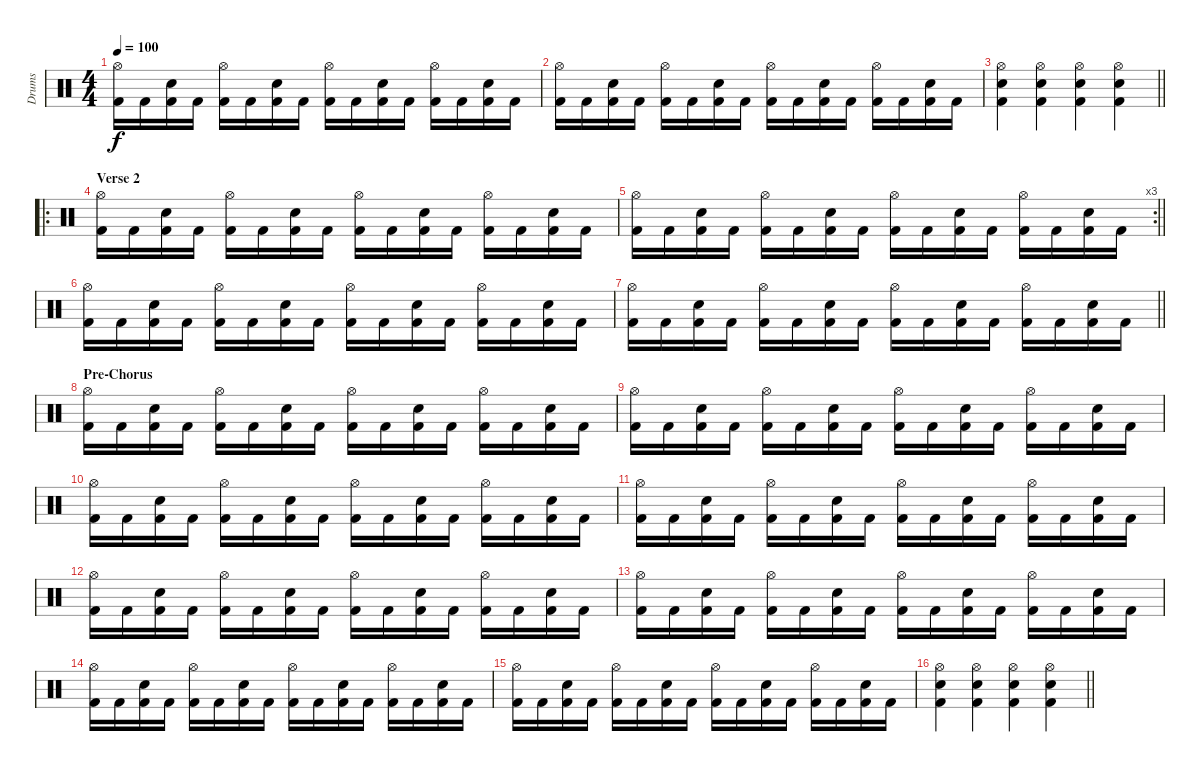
\track ("Drums" "Drums") {instrument percussion}
\staff {score}
\articulation defaults
\ts (4 4)
\tempo 100
\clef neutral
\ks c
("Hi-Hat (open)" "Kick (hit) 2").16{dy f} "Kick (hit) 2".16 ("Snare (hit) 2" "Kick (hit) 2").16 "Kick (hit) 2".16 ("Hi-Hat (open)" "Kick (hit) 2").16 "Kick (hit) 2".16 ("Snare (hit) 2" "Kick (hit) 2").16 "Kick (hit) 2".16 ("Hi-Hat (open)" "Kick (hit) 2").16 "Kick (hit) 2".16 ("Snare (hit) 2" "Kick (hit) 2").16 "Kick (hit) 2".16 ("Hi-Hat (open)" "Kick (hit) 2").16 "Kick (hit) 2".16 ("Snare (hit) 2" "Kick (hit) 2").16 "Kick (hit) 2".16 |
("Hi-Hat (open)" "Kick (hit) 2").16 "Kick (hit) 2".16 ("Snare (hit) 2" "Kick (hit) 2").16 "Kick (hit) 2".16 ("Hi-Hat (open)" "Kick (hit) 2").16 "Kick (hit) 2".16 ("Snare (hit) 2" "Kick (hit) 2").16 "Kick (hit) 2".16 ("Hi-Hat (open)" "Kick (hit) 2").16 "Kick (hit) 2".16 ("Snare (hit) 2" "Kick (hit) 2").16 "Kick (hit) 2".16 ("Hi-Hat (open)" "Kick (hit) 2").16 "Kick (hit) 2".16 ("Snare (hit) 2" "Kick (hit) 2").16 "Kick (hit) 2".16 |
\barLineRight lightlight
("Hi-Hat (open)" "Snare (hit) 2" "Kick (hit) 2").4 ("Hi-Hat (open)" "Snare (hit) 2" "Kick (hit) 2").4 ("Hi-Hat (open)" "Snare (hit) 2" "Kick (hit) 2").4 ("Hi-Hat (open)" "Snare (hit) 2" "Kick (hit) 2").4 |
\ro
\section ("" "Verse 2")
("Hi-Hat (open)" "Kick (hit) 2").16 "Kick (hit) 2".16 ("Snare (hit) 2" "Kick (hit) 2").16 "Kick (hit) 2".16 ("Hi-Hat (open)" "Kick (hit) 2").16 "Kick (hit) 2".16 ("Snare (hit) 2" "Kick (hit) 2").16 "Kick (hit) 2".16 ("Hi-Hat (open)" "Kick (hit) 2").16 "Kick (hit) 2".16 ("Snare (hit) 2" "Kick (hit) 2").16 "Kick (hit) 2".16 ("Hi-Hat (open)" "Kick (hit) 2").16 "Kick (hit) 2".16 ("Snare (hit) 2" "Kick (hit) 2").16 "Kick (hit) 2".16 |
\rc 3
\barLineRight lightlight
("Hi-Hat (open)" "Kick (hit) 2").16 "Kick (hit) 2".16 ("Snare (hit) 2" "Kick (hit) 2").16 "Kick (hit) 2".16 ("Hi-Hat (open)" "Kick (hit) 2").16 "Kick (hit) 2".16 ("Snare (hit) 2" "Kick (hit) 2").16 "Kick (hit) 2".16 ("Hi-Hat (open)" "Kick (hit) 2").16 "Kick (hit) 2".16 ("Snare (hit) 2" "Kick (hit) 2").16 "Kick (hit) 2".16 ("Hi-Hat (open)" "Kick (hit) 2").16 "Kick (hit) 2".16 ("Snare (hit) 2" "Kick (hit) 2").16 "Kick (hit) 2".16 |
("Hi-Hat (open)" "Kick (hit) 2").16 "Kick (hit) 2".16 ("Snare (hit) 2" "Kick (hit) 2").16 "Kick (hit) 2".16 ("Hi-Hat (open)" "Kick (hit) 2").16 "Kick (hit) 2".16 ("Snare (hit) 2" "Kick (hit) 2").16 "Kick (hit) 2".16 ("Hi-Hat (open)" "Kick (hit) 2").16 "Kick (hit) 2".16 ("Snare (hit) 2" "Kick (hit) 2").16 "Kick (hit) 2".16 ("Hi-Hat (open)" "Kick (hit) 2").16 "Kick (hit) 2".16 ("Snare (hit) 2" "Kick (hit) 2").16 "Kick (hit) 2".16 |
\barLineRight lightlight
("Hi-Hat (open)" "Kick (hit) 2").16 "Kick (hit) 2".16 ("Snare (hit) 2" "Kick (hit) 2").16 "Kick (hit) 2".16 ("Hi-Hat (open)" "Kick (hit) 2").16 "Kick (hit) 2".16 ("Snare (hit) 2" "Kick (hit) 2").16 "Kick (hit) 2".16 ("Hi-Hat (open)" "Kick (hit) 2").16 "Kick (hit) 2".16 ("Snare (hit) 2" "Kick (hit) 2").16 "Kick (hit) 2".16 ("Hi-Hat (open)" "Kick (hit) 2").16 "Kick (hit) 2".16 ("Snare (hit) 2" "Kick (hit) 2").16 "Kick (hit) 2".16 |
\section ("" "Pre-Chorus")
("Hi-Hat (open)" "Kick (hit) 2").16 "Kick (hit) 2".16 ("Snare (hit) 2" "Kick (hit) 2").16 "Kick (hit) 2".16 ("Hi-Hat (open)" "Kick (hit) 2").16 "Kick (hit) 2".16 ("Snare (hit) 2" "Kick (hit) 2").16 "Kick (hit) 2".16 ("Hi-Hat (open)" "Kick (hit) 2").16 "Kick (hit) 2".16 ("Snare (hit) 2" "Kick (hit) 2").16 "Kick (hit) 2".16 ("Hi-Hat (open)" "Kick (hit) 2").16 "Kick (hit) 2".16 ("Snare (hit) 2" "Kick (hit) 2").16 "Kick (hit) 2".16 |
("Hi-Hat (open)" "Kick (hit) 2").16 "Kick (hit) 2".16 ("Snare (hit) 2" "Kick (hit) 2").16 "Kick (hit) 2".16 ("Hi-Hat (open)" "Kick (hit) 2").16 "Kick (hit) 2".16 ("Snare (hit) 2" "Kick (hit) 2").16 "Kick (hit) 2".16 ("Hi-Hat (open)" "Kick (hit) 2").16 "Kick (hit) 2".16 ("Snare (hit) 2" "Kick (hit) 2").16 "Kick (hit) 2".16 ("Hi-Hat (open)" "Kick (hit) 2").16 "Kick (hit) 2".16 ("Snare (hit) 2" "Kick (hit) 2").16 "Kick (hit) 2".16 |
("Hi-Hat (open)" "Kick (hit) 2").16 "Kick (hit) 2".16 ("Snare (hit) 2" "Kick (hit) 2").16 "Kick (hit) 2".16 ("Hi-Hat (open)" "Kick (hit) 2").16 "Kick (hit) 2".16 ("Snare (hit) 2" "Kick (hit) 2").16 "Kick (hit) 2".16 ("Hi-Hat (open)" "Kick (hit) 2").16 "Kick (hit) 2".16 ("Snare (hit) 2" "Kick (hit) 2").16 "Kick (hit) 2".16 ("Hi-Hat (open)" "Kick (hit) 2").16 "Kick (hit) 2".16 ("Snare (hit) 2" "Kick (hit) 2").16 "Kick (hit) 2".16 |
("Hi-Hat (open)" "Kick (hit) 2").16 "Kick (hit) 2".16 ("Snare (hit) 2" "Kick (hit) 2").16 "Kick (hit) 2".16 ("Hi-Hat (open)" "Kick (hit) 2").16 "Kick (hit) 2".16 ("Snare (hit) 2" "Kick (hit) 2").16 "Kick (hit) 2".16 ("Hi-Hat (open)" "Kick (hit) 2").16 "Kick (hit) 2".16 ("Snare (hit) 2" "Kick (hit) 2").16 "Kick (hit) 2".16 ("Hi-Hat (open)" "Kick (hit) 2").16 "Kick (hit) 2".16 ("Snare (hit) 2" "Kick (hit) 2").16 "Kick (hit) 2".16 |
("Hi-Hat (open)" "Kick (hit) 2").16 "Kick (hit) 2".16 ("Snare (hit) 2" "Kick (hit) 2").16 "Kick (hit) 2".16 ("Hi-Hat (open)" "Kick (hit) 2").16 "Kick (hit) 2".16 ("Snare (hit) 2" "Kick (hit) 2").16 "Kick (hit) 2".16 ("Hi-Hat (open)" "Kick (hit) 2").16 "Kick (hit) 2".16 ("Snare (hit) 2" "Kick (hit) 2").16 "Kick (hit) 2".16 ("Hi-Hat (open)" "Kick (hit) 2").16 "Kick (hit) 2".16 ("Snare (hit) 2" "Kick (hit) 2").16 "Kick (hit) 2".16 |
("Hi-Hat (open)" "Kick (hit) 2").16 "Kick (hit) 2".16 ("Snare (hit) 2" "Kick (hit) 2").16 "Kick (hit) 2".16 ("Hi-Hat (open)" "Kick (hit) 2").16 "Kick (hit) 2".16 ("Snare (hit) 2" "Kick (hit) 2").16 "Kick (hit) 2".16 ("Hi-Hat (open)" "Kick (hit) 2").16 "Kick (hit) 2".16 ("Snare (hit) 2" "Kick (hit) 2").16 "Kick (hit) 2".16 ("Hi-Hat (open)" "Kick (hit) 2").16 "Kick (hit) 2".16 ("Snare (hit) 2" "Kick (hit) 2").16 "Kick (hit) 2".16 |
("Hi-Hat (open)" "Kick (hit) 2").16 "Kick (hit) 2".16 ("Snare (hit) 2" "Kick (hit) 2").16 "Kick (hit) 2".16 ("Hi-Hat (open)" "Kick (hit) 2").16 "Kick (hit) 2".16 ("Snare (hit) 2" "Kick (hit) 2").16 "Kick (hit) 2".16 ("Hi-Hat (open)" "Kick (hit) 2").16 "Kick (hit) 2".16 ("Snare (hit) 2" "Kick (hit) 2").16 "Kick (hit) 2".16 ("Hi-Hat (open)" "Kick (hit) 2").16 "Kick (hit) 2".16 ("Snare (hit) 2" "Kick (hit) 2").16 "Kick (hit) 2".16 |
("Hi-Hat (open)" "Kick (hit) 2").16 "Kick (hit) 2".16 ("Snare (hit) 2" "Kick (hit) 2").16 "Kick (hit) 2".16 ("Hi-Hat (open)" "Kick (hit) 2").16 "Kick (hit) 2".16 ("Snare (hit) 2" "Kick (hit) 2").16 "Kick (hit) 2".16 ("Hi-Hat (open)" "Kick (hit) 2").16 "Kick (hit) 2".16 ("Snare (hit) 2" "Kick (hit) 2").16 "Kick (hit) 2".16 ("Hi-Hat (open)" "Kick (hit) 2").16 "Kick (hit) 2".16 ("Snare (hit) 2" "Kick (hit) 2").16 "Kick (hit) 2".16 |
\barLineRight lightlight
("Hi-Hat (open)" "Snare (hit) 2" "Kick (hit) 2").4 ("Hi-Hat (open)" "Snare (hit) 2" "Kick (hit) 2").4 ("Hi-Hat (open)" "Snare (hit) 2" "Kick (hit) 2").4 ("Hi-Hat (open)" "Snare (hit) 2" "Kick (hit) 2").4
